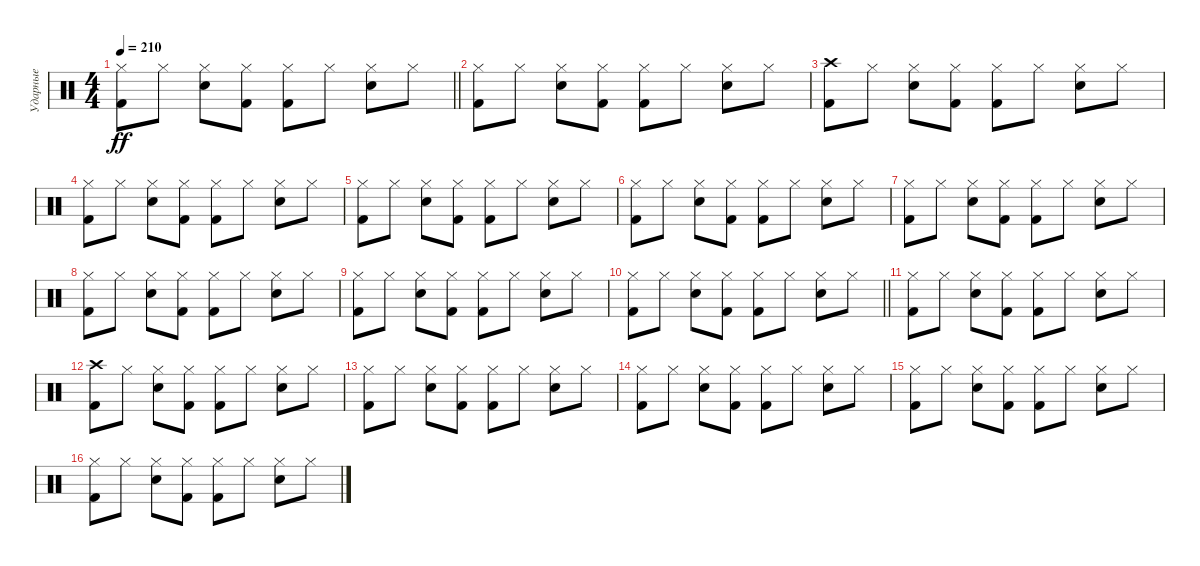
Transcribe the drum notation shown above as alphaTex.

\track ("Ударные" "Ударные") {instrument percussion}
\staff {score}
\articulation defaults
\ts (4 4)
\tempo 210
\clef neutral
\barLineRight lightlight
\ks c
("Hi-Hat (closed)" "Kick (hit) 2").8{dy ff} "Hi-Hat (closed)".8 ("Hi-Hat (closed)" "Snare (hit) 2").8 ("Hi-Hat (closed)" "Kick (hit) 2").8 ("Hi-Hat (closed)" "Kick (hit) 2").8 "Hi-Hat (closed)".8 ("Hi-Hat (closed)" "Snare (hit) 2").8 "Hi-Hat (closed)".8 |
("Hi-Hat (closed)" "Kick (hit) 2").8 "Hi-Hat (closed)".8 ("Hi-Hat (closed)" "Snare (hit) 2").8 ("Hi-Hat (closed)" "Kick (hit) 2").8 ("Hi-Hat (closed)" "Kick (hit) 2").8 "Hi-Hat (closed)".8 ("Hi-Hat (closed)" "Snare (hit) 2").8 "Hi-Hat (closed)".8 |
("Crash high (hit)" "Kick (hit) 2").8 "Hi-Hat (closed)".8 ("Hi-Hat (closed)" "Snare (hit) 2").8 ("Hi-Hat (closed)" "Kick (hit) 2").8 ("Hi-Hat (closed)" "Kick (hit) 2").8 "Hi-Hat (closed)".8 ("Hi-Hat (closed)" "Snare (hit) 2").8 "Hi-Hat (closed)".8 |
("Hi-Hat (closed)" "Kick (hit) 2").8 "Hi-Hat (closed)".8 ("Hi-Hat (closed)" "Snare (hit) 2").8 ("Hi-Hat (closed)" "Kick (hit) 2").8 ("Hi-Hat (closed)" "Kick (hit) 2").8 "Hi-Hat (closed)".8 ("Hi-Hat (closed)" "Snare (hit) 2").8 "Hi-Hat (closed)".8 |
("Hi-Hat (closed)" "Kick (hit) 2").8 "Hi-Hat (closed)".8 ("Hi-Hat (closed)" "Snare (hit) 2").8 ("Hi-Hat (closed)" "Kick (hit) 2").8 ("Hi-Hat (closed)" "Kick (hit) 2").8 "Hi-Hat (closed)".8 ("Hi-Hat (closed)" "Snare (hit) 2").8 "Hi-Hat (closed)".8 |
("Hi-Hat (closed)" "Kick (hit) 2").8 "Hi-Hat (closed)".8 ("Hi-Hat (closed)" "Snare (hit) 2").8 ("Hi-Hat (closed)" "Kick (hit) 2").8 ("Hi-Hat (closed)" "Kick (hit) 2").8 "Hi-Hat (closed)".8 ("Hi-Hat (closed)" "Snare (hit) 2").8 "Hi-Hat (closed)".8 |
("Hi-Hat (closed)" "Kick (hit) 2").8 "Hi-Hat (closed)".8 ("Hi-Hat (closed)" "Snare (hit) 2").8 ("Hi-Hat (closed)" "Kick (hit) 2").8 ("Hi-Hat (closed)" "Kick (hit) 2").8 "Hi-Hat (closed)".8 ("Hi-Hat (closed)" "Snare (hit) 2").8 "Hi-Hat (closed)".8 |
("Hi-Hat (closed)" "Kick (hit) 2").8 "Hi-Hat (closed)".8 ("Hi-Hat (closed)" "Snare (hit) 2").8 ("Hi-Hat (closed)" "Kick (hit) 2").8 ("Hi-Hat (closed)" "Kick (hit) 2").8 "Hi-Hat (closed)".8 ("Hi-Hat (closed)" "Snare (hit) 2").8 "Hi-Hat (closed)".8 |
("Hi-Hat (closed)" "Kick (hit) 2").8 "Hi-Hat (closed)".8 ("Hi-Hat (closed)" "Snare (hit) 2").8 ("Hi-Hat (closed)" "Kick (hit) 2").8 ("Hi-Hat (closed)" "Kick (hit) 2").8 "Hi-Hat (closed)".8 ("Hi-Hat (closed)" "Snare (hit) 2").8 "Hi-Hat (closed)".8 |
\barLineRight lightlight
("Hi-Hat (closed)" "Kick (hit) 2").8 "Hi-Hat (closed)".8 ("Hi-Hat (closed)" "Snare (hit) 2").8 ("Hi-Hat (closed)" "Kick (hit) 2").8 ("Hi-Hat (closed)" "Kick (hit) 2").8 "Hi-Hat (closed)".8 ("Hi-Hat (closed)" "Snare (hit) 2").8 "Hi-Hat (closed)".8 |
("Hi-Hat (closed)" "Kick (hit) 2").8 "Hi-Hat (closed)".8 ("Hi-Hat (closed)" "Snare (hit) 2").8 ("Hi-Hat (closed)" "Kick (hit) 2").8 ("Hi-Hat (closed)" "Kick (hit) 2").8 "Hi-Hat (closed)".8 ("Hi-Hat (closed)" "Snare (hit) 2").8 "Hi-Hat (closed)".8 |
("Crash high (hit)" "Kick (hit) 2").8 "Hi-Hat (closed)".8 ("Hi-Hat (closed)" "Snare (hit) 2").8 ("Hi-Hat (closed)" "Kick (hit) 2").8 ("Hi-Hat (closed)" "Kick (hit) 2").8 "Hi-Hat (closed)".8 ("Hi-Hat (closed)" "Snare (hit) 2").8 "Hi-Hat (closed)".8 |
("Hi-Hat (closed)" "Kick (hit) 2").8 "Hi-Hat (closed)".8 ("Hi-Hat (closed)" "Snare (hit) 2").8 ("Hi-Hat (closed)" "Kick (hit) 2").8 ("Hi-Hat (closed)" "Kick (hit) 2").8 "Hi-Hat (closed)".8 ("Hi-Hat (closed)" "Snare (hit) 2").8 "Hi-Hat (closed)".8 |
("Hi-Hat (closed)" "Kick (hit) 2").8 "Hi-Hat (closed)".8 ("Hi-Hat (closed)" "Snare (hit) 2").8 ("Hi-Hat (closed)" "Kick (hit) 2").8 ("Hi-Hat (closed)" "Kick (hit) 2").8 "Hi-Hat (closed)".8 ("Hi-Hat (closed)" "Snare (hit) 2").8 "Hi-Hat (closed)".8 |
("Hi-Hat (closed)" "Kick (hit) 2").8 "Hi-Hat (closed)".8 ("Hi-Hat (closed)" "Snare (hit) 2").8 ("Hi-Hat (closed)" "Kick (hit) 2").8 ("Hi-Hat (closed)" "Kick (hit) 2").8 "Hi-Hat (closed)".8 ("Hi-Hat (closed)" "Snare (hit) 2").8 "Hi-Hat (closed)".8 |
("Hi-Hat (closed)" "Kick (hit) 2").8 "Hi-Hat (closed)".8 ("Hi-Hat (closed)" "Snare (hit) 2").8 ("Hi-Hat (closed)" "Kick (hit) 2").8 ("Hi-Hat (closed)" "Kick (hit) 2").8 "Hi-Hat (closed)".8 ("Hi-Hat (closed)" "Snare (hit) 2").8 "Hi-Hat (closed)".8
